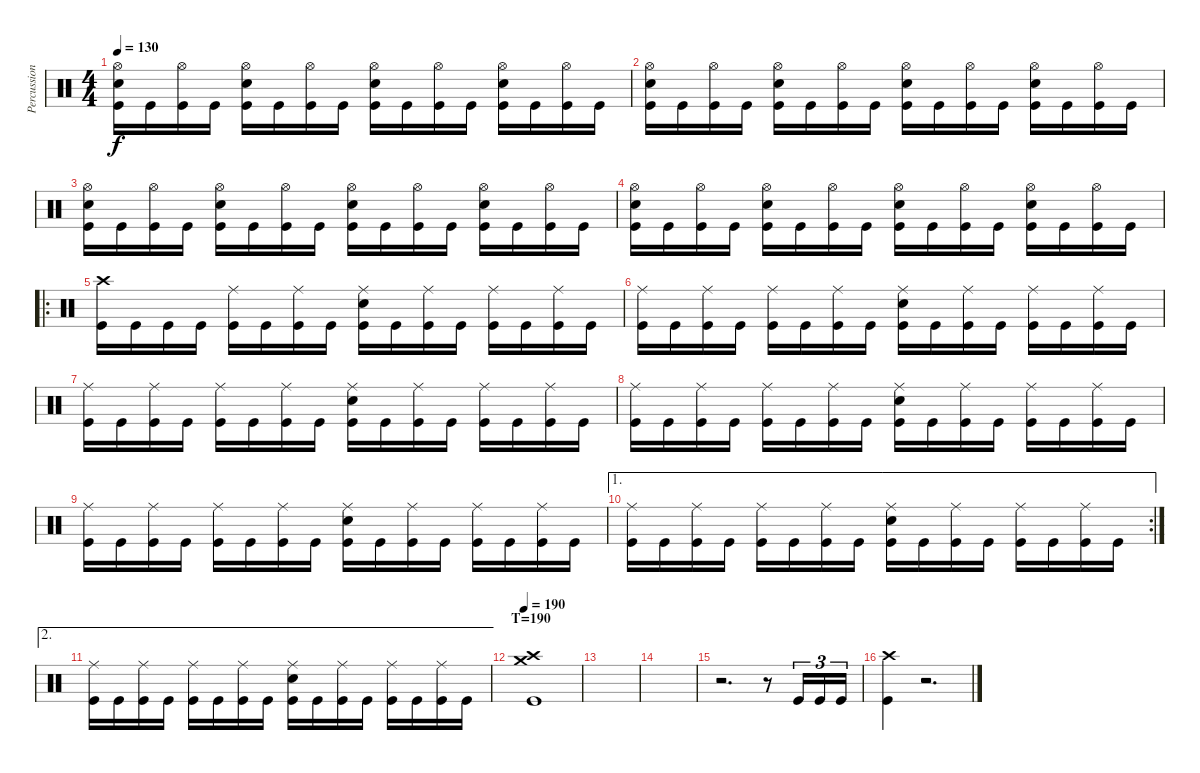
\track ("Percussion" "Percussion") {instrument percussion}
\staff {score}
\articulation defaults
\ts (4 4)
\tempo 130
\clef neutral
\ks c
("Hi-Hat (open)" "Electric Snare (hit)" "Kick (hit)").16{dy f} "Kick (hit)".16 ("Hi-Hat (open)" "Kick (hit)").16 "Kick (hit)".16 ("Hi-Hat (open)" "Electric Snare (hit)" "Kick (hit)").16 "Kick (hit)".16 ("Hi-Hat (open)" "Kick (hit)").16 "Kick (hit)".16 ("Hi-Hat (open)" "Electric Snare (hit)" "Kick (hit)").16 "Kick (hit)".16 ("Hi-Hat (open)" "Kick (hit)").16 "Kick (hit)".16 ("Hi-Hat (open)" "Electric Snare (hit)" "Kick (hit)").16 "Kick (hit)".16 ("Hi-Hat (open)" "Kick (hit)").16 "Kick (hit)".16 |
("Hi-Hat (open)" "Electric Snare (hit)" "Kick (hit)").16 "Kick (hit)".16 ("Hi-Hat (open)" "Kick (hit)").16 "Kick (hit)".16 ("Hi-Hat (open)" "Electric Snare (hit)" "Kick (hit)").16 "Kick (hit)".16 ("Hi-Hat (open)" "Kick (hit)").16 "Kick (hit)".16 ("Hi-Hat (open)" "Electric Snare (hit)" "Kick (hit)").16 "Kick (hit)".16 ("Hi-Hat (open)" "Kick (hit)").16 "Kick (hit)".16 ("Hi-Hat (open)" "Electric Snare (hit)" "Kick (hit)").16 "Kick (hit)".16 ("Hi-Hat (open)" "Kick (hit)").16 "Kick (hit)".16 |
("Hi-Hat (open)" "Electric Snare (hit)" "Kick (hit)").16 "Kick (hit)".16 ("Hi-Hat (open)" "Kick (hit)").16 "Kick (hit)".16 ("Hi-Hat (open)" "Electric Snare (hit)" "Kick (hit)").16 "Kick (hit)".16 ("Hi-Hat (open)" "Kick (hit)").16 "Kick (hit)".16 ("Hi-Hat (open)" "Electric Snare (hit)" "Kick (hit)").16 "Kick (hit)".16 ("Hi-Hat (open)" "Kick (hit)").16 "Kick (hit)".16 ("Hi-Hat (open)" "Electric Snare (hit)" "Kick (hit)").16 "Kick (hit)".16 ("Hi-Hat (open)" "Kick (hit)").16 "Kick (hit)".16 |
("Hi-Hat (open)" "Electric Snare (hit)" "Kick (hit)").16 "Kick (hit)".16 ("Hi-Hat (open)" "Kick (hit)").16 "Kick (hit)".16 ("Hi-Hat (open)" "Electric Snare (hit)" "Kick (hit)").16 "Kick (hit)".16 ("Hi-Hat (open)" "Kick (hit)").16 "Kick (hit)".16 ("Hi-Hat (open)" "Electric Snare (hit)" "Kick (hit)").16 "Kick (hit)".16 ("Hi-Hat (open)" "Kick (hit)").16 "Kick (hit)".16 ("Hi-Hat (open)" "Electric Snare (hit)" "Kick (hit)").16 "Kick (hit)".16 ("Hi-Hat (open)" "Kick (hit)").16 "Kick (hit)".16 |
\ro
("Crash high (hit)" "Kick (hit)").16 "Kick (hit)".16 "Kick (hit)".16 "Kick (hit)".16 ("Ride (middle)" "Kick (hit)").16 "Kick (hit)".16 ("Ride (middle)" "Kick (hit)").16 "Kick (hit)".16 ("Ride (middle)" "Electric Snare (hit)" "Kick (hit)").16 "Kick (hit)".16 ("Ride (middle)" "Kick (hit)").16 "Kick (hit)".16 ("Ride (middle)" "Kick (hit)").16 "Kick (hit)".16 ("Ride (middle)" "Kick (hit)").16 "Kick (hit)".16 |
("Ride (middle)" "Kick (hit)").16 "Kick (hit)".16 ("Ride (middle)" "Kick (hit)").16 "Kick (hit)".16 ("Ride (middle)" "Kick (hit)").16 "Kick (hit)".16 ("Ride (middle)" "Kick (hit)").16 "Kick (hit)".16 ("Ride (middle)" "Electric Snare (hit)" "Kick (hit)").16 "Kick (hit)".16 ("Ride (middle)" "Kick (hit)").16 "Kick (hit)".16 ("Ride (middle)" "Kick (hit)").16 "Kick (hit)".16 ("Ride (middle)" "Kick (hit)").16 "Kick (hit)".16 |
("Ride (middle)" "Kick (hit)").16 "Kick (hit)".16 ("Ride (middle)" "Kick (hit)").16 "Kick (hit)".16 ("Ride (middle)" "Kick (hit)").16 "Kick (hit)".16 ("Ride (middle)" "Kick (hit)").16 "Kick (hit)".16 ("Ride (middle)" "Electric Snare (hit)" "Kick (hit)").16 "Kick (hit)".16 ("Ride (middle)" "Kick (hit)").16 "Kick (hit)".16 ("Ride (middle)" "Kick (hit)").16 "Kick (hit)".16 ("Ride (middle)" "Kick (hit)").16 "Kick (hit)".16 |
("Ride (middle)" "Kick (hit)").16 "Kick (hit)".16 ("Ride (middle)" "Kick (hit)").16 "Kick (hit)".16 ("Ride (middle)" "Kick (hit)").16 "Kick (hit)".16 ("Ride (middle)" "Kick (hit)").16 "Kick (hit)".16 ("Ride (middle)" "Electric Snare (hit)" "Kick (hit)").16 "Kick (hit)".16 ("Ride (middle)" "Kick (hit)").16 "Kick (hit)".16 ("Ride (middle)" "Kick (hit)").16 "Kick (hit)".16 ("Ride (middle)" "Kick (hit)").16 "Kick (hit)".16 |
("Ride (middle)" "Kick (hit)").16 "Kick (hit)".16 ("Ride (middle)" "Kick (hit)").16 "Kick (hit)".16 ("Ride (middle)" "Kick (hit)").16 "Kick (hit)".16 ("Ride (middle)" "Kick (hit)").16 "Kick (hit)".16 ("Ride (middle)" "Electric Snare (hit)" "Kick (hit)").16 "Kick (hit)".16 ("Ride (middle)" "Kick (hit)").16 "Kick (hit)".16 ("Ride (middle)" "Kick (hit)").16 "Kick (hit)".16 ("Ride (middle)" "Kick (hit)").16 "Kick (hit)".16 |
\ae 1
\rc 2
("Ride (middle)" "Kick (hit)").16 "Kick (hit)".16 ("Ride (middle)" "Kick (hit)").16 "Kick (hit)".16 ("Ride (middle)" "Kick (hit)").16 "Kick (hit)".16 ("Ride (middle)" "Kick (hit)").16 "Kick (hit)".16 ("Ride (middle)" "Electric Snare (hit)" "Kick (hit)").16 "Kick (hit)".16 ("Ride (middle)" "Kick (hit)").16 "Kick (hit)".16 ("Ride (middle)" "Kick (hit)").16 "Kick (hit)".16 ("Ride (middle)" "Kick (hit)").16 "Kick (hit)".16 |
\ae 2
("Ride (middle)" "Kick (hit)").16 "Kick (hit)".16 ("Ride (middle)" "Kick (hit)").16 "Kick (hit)".16 ("Ride (middle)" "Kick (hit)").16 "Kick (hit)".16 ("Ride (middle)" "Kick (hit)").16 "Kick (hit)".16 ("Ride (middle)" "Electric Snare (hit)" "Kick (hit)").16 "Kick (hit)".16 ("Ride (middle)" "Kick (hit)").16 "Kick (hit)".16 ("Ride (middle)" "Kick (hit)").16 "Kick (hit)".16 ("Ride (middle)" "Kick (hit)").16 "Kick (hit)".16 |
\section ("" "T=190")
\tempo 190
("Crash medium (hit)" "Crash high (hit)" "Kick (hit)").1 |
|
|
r.2{d} r.8 "Kick (hit)".16{tu (3 2)} "Kick (hit)".16{tu (3 2)} "Kick (hit)".16{tu (3 2)} |
("Crash high (hit)" "Kick (hit)").4 r.2{d}
